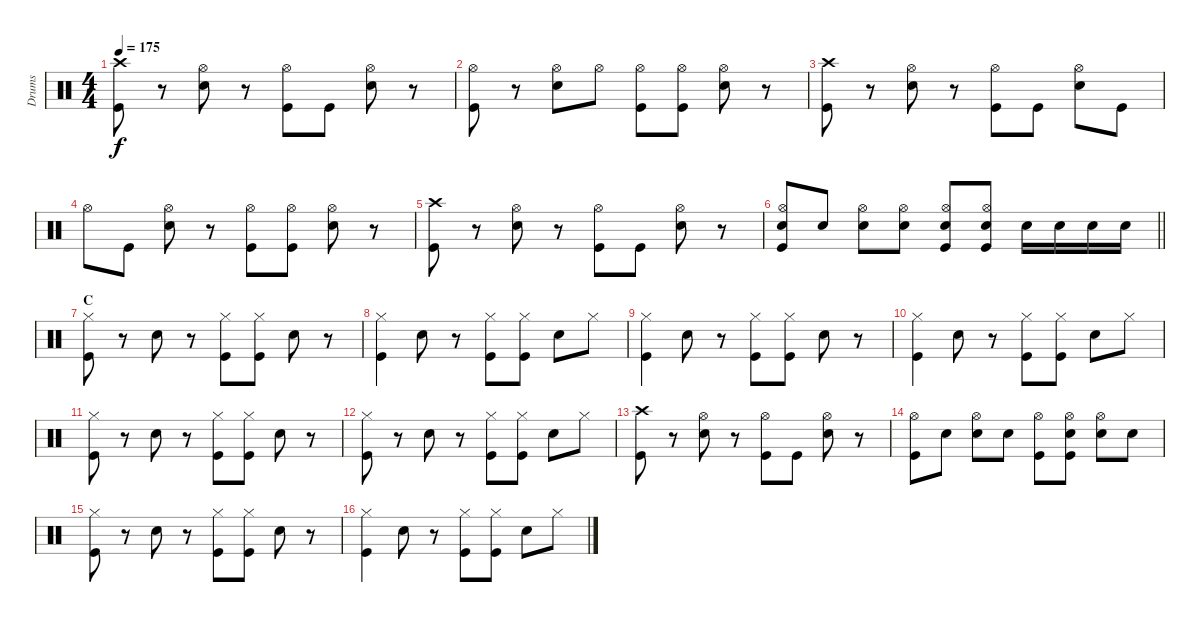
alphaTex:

\track ("Drums" "Drums") {instrument percussion}
\staff {score}
\articulation defaults
\ts (4 4)
\tempo 175
\clef neutral
\ks c
("Crash high (hit)" "Kick (hit)").8{dy f} r.8 ("Hi-Hat (open)" "Snare (hit) 2").8 r.8 ("Hi-Hat (open)" "Kick (hit)").8 "Kick (hit)".8 ("Hi-Hat (open)" "Snare (hit) 2").8 r.8 |
("Hi-Hat (open)" "Kick (hit)").8 r.8 ("Hi-Hat (open)" "Snare (hit) 2").8 "Hi-Hat (open)".8 ("Hi-Hat (open)" "Kick (hit)").8 ("Hi-Hat (open)" "Kick (hit)").8 ("Hi-Hat (open)" "Snare (hit) 2").8 r.8 |
("Crash high (hit)" "Kick (hit)").8 r.8 ("Hi-Hat (open)" "Snare (hit) 2").8 r.8 ("Hi-Hat (open)" "Kick (hit)").8 "Kick (hit)".8 ("Hi-Hat (open)" "Snare (hit) 2").8 "Kick (hit)".8 |
"Hi-Hat (open)".8 "Kick (hit)".8 ("Hi-Hat (open)" "Snare (hit) 2").8 r.8 ("Hi-Hat (open)" "Kick (hit)").8 ("Hi-Hat (open)" "Kick (hit)").8 ("Hi-Hat (open)" "Snare (hit) 2").8 r.8 |
("Crash high (hit)" "Kick (hit)").8 r.8 ("Hi-Hat (open)" "Snare (hit) 2").8 r.8 ("Hi-Hat (open)" "Kick (hit)").8 "Kick (hit)".8 ("Hi-Hat (open)" "Snare (hit) 2").8 r.8 |
\barLineRight lightlight
("Hi-Hat (open)" "Snare (hit) 2" "Kick (hit)").8 "Snare (hit) 2".8 ("Hi-Hat (open)" "Snare (hit) 2").8 ("Hi-Hat (open)" "Snare (hit) 2").8 ("Hi-Hat (open)" "Snare (hit) 2" "Kick (hit)").8 ("Hi-Hat (open)" "Snare (hit) 2" "Kick (hit)").8 "Snare (hit) 2".16 "Snare (hit) 2".16 "Snare (hit) 2".16 "Snare (hit) 2".16 |
\section ("" "C")
("Hi-Hat (closed)" "Kick (hit)").8 r.8 "Snare (hit) 2".8 r.8 ("Hi-Hat (closed)" "Kick (hit)").8 ("Hi-Hat (closed)" "Kick (hit)").8 "Snare (hit) 2".8 r.8 |
("Hi-Hat (closed)" "Kick (hit)").4 "Snare (hit) 2".8 r.8 ("Hi-Hat (closed)" "Kick (hit)").8 ("Hi-Hat (closed)" "Kick (hit)").8 "Snare (hit) 2".8 "Hi-Hat (closed)".8 |
("Hi-Hat (closed)" "Kick (hit)").4 "Snare (hit) 2".8 r.8 ("Hi-Hat (closed)" "Kick (hit)").8 ("Hi-Hat (closed)" "Kick (hit)").8 "Snare (hit) 2".8 r.8 |
("Hi-Hat (closed)" "Kick (hit)").4 "Snare (hit) 2".8 r.8 ("Hi-Hat (closed)" "Kick (hit)").8 ("Hi-Hat (closed)" "Kick (hit)").8 "Snare (hit) 2".8 "Hi-Hat (closed)".8 |
("Hi-Hat (closed)" "Kick (hit)").8 r.8 "Snare (hit) 2".8 r.8 ("Hi-Hat (closed)" "Kick (hit)").8 ("Hi-Hat (closed)" "Kick (hit)").8 "Snare (hit) 2".8 r.8 |
("Hi-Hat (closed)" "Kick (hit)").8 r.8 "Snare (hit) 2".8 r.8 ("Hi-Hat (closed)" "Kick (hit)").8 ("Hi-Hat (closed)" "Kick (hit)").8 "Snare (hit) 2".8 "Hi-Hat (closed)".8 |
("Crash high (hit)" "Kick (hit)").8 r.8 ("Hi-Hat (open)" "Snare (hit) 2").8 r.8 ("Hi-Hat (open)" "Kick (hit)").8 "Kick (hit)".8 ("Hi-Hat (open)" "Snare (hit) 2").8 r.8 |
("Hi-Hat (open)" "Kick (hit)").8 "Snare (hit) 2".8 ("Hi-Hat (open)" "Snare (hit) 2").8 "Snare (hit) 2".8 ("Hi-Hat (open)" "Kick (hit)").8 ("Hi-Hat (open)" "Snare (hit) 2" "Kick (hit)").8 ("Hi-Hat (open)" "Snare (hit) 2").8 "Snare (hit) 2".8 |
("Hi-Hat (closed)" "Kick (hit)").8 r.8 "Snare (hit) 2".8 r.8 ("Hi-Hat (closed)" "Kick (hit)").8 ("Hi-Hat (closed)" "Kick (hit)").8 "Snare (hit) 2".8 r.8 |
("Hi-Hat (closed)" "Kick (hit)").4 "Snare (hit) 2".8 r.8 ("Hi-Hat (closed)" "Kick (hit)").8 ("Hi-Hat (closed)" "Kick (hit)").8 "Snare (hit) 2".8 "Hi-Hat (closed)".8
